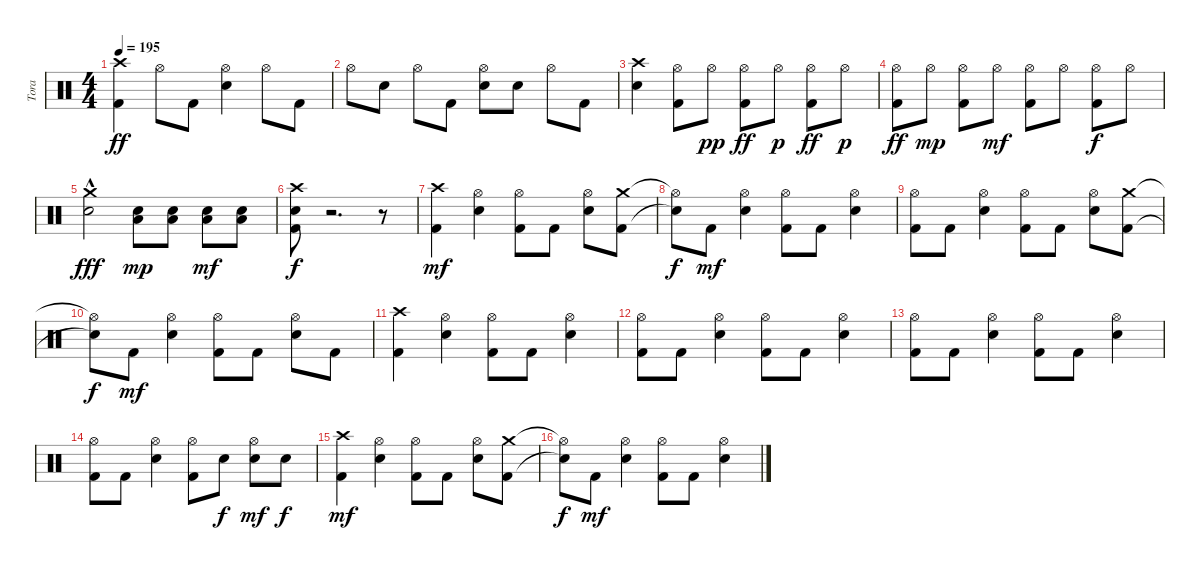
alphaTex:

\track ("Tora" "Tora") {instrument percussion}
\staff {score}
\articulation defaults
\ts (4 4)
\tempo 195
\clef neutral
\ks c
("Crash high (hit)" "Kick (hit) 2").4{dy ff} "Hi-Hat (open)".8 "Kick (hit) 2".8 ("Hi-Hat (open)" "Electric Snare (hit)").4 "Hi-Hat (open)".8 "Kick (hit) 2".8 |
"Hi-Hat (open)".8 "Electric Snare (hit)".8 "Hi-Hat (open)".8 "Kick (hit) 2".8 ("Hi-Hat (open)" "Electric Snare (hit)").8 "Electric Snare (hit)".8 "Hi-Hat (open)".8 "Kick (hit) 2".8 |
("Crash high (hit)" "Electric Snare (hit)").4 ("Hi-Hat (open)" "Kick (hit) 2").8 "Hi-Hat (open)".8{dy pp} ("Hi-Hat (open)" "Kick (hit) 2").8{dy ff} "Hi-Hat (open)".8{dy p} ("Hi-Hat (open)" "Kick (hit) 2").8{dy ff} "Hi-Hat (open)".8{dy p} |
("Hi-Hat (open)" "Kick (hit) 2").8{dy ff} "Hi-Hat (open)".8{dy mp} ("Hi-Hat (open)" "Kick (hit) 2").8 "Hi-Hat (open)".8{dy mf} ("Hi-Hat (open)" "Kick (hit) 2").8 "Hi-Hat (open)".8 ("Hi-Hat (open)" "Kick (hit) 2").8{dy f} "Hi-Hat (open)".8 |
("Crash medium (hit)"{hac} "Electric Snare (hit)"{hac}).2{dy fff} ("Electric Snare (hit)" "Low Floor Tom (hit)").8{dy mp} ("Electric Snare (hit)" "Low Floor Tom (hit)").8 ("Electric Snare (hit)" "Low Floor Tom (hit)").8{dy mf} ("Electric Snare (hit)" "Low Floor Tom (hit)").8 |
("Crash high (hit)" "Electric Snare (hit)" "Kick (hit) 2").8{dy f} r.2{d} r.8 |
("Crash high (hit)" "Kick (hit) 2").4{dy mf} ("Hi-Hat (open)" "Electric Snare (hit)").4 ("Hi-Hat (open)" "Kick (hit) 2").8 "Kick (hit) 2".8 ("Hi-Hat (open)" "Electric Snare (hit)").8 ("Crash medium (hit)" "Kick (hit) 2").8 |
("Hi-Hat (open)"{t} "Snare (hit)"{t}).8{dy f} "Kick (hit) 2".8{dy mf} ("Hi-Hat (open)" "Electric Snare (hit)").4 ("Hi-Hat (open)" "Kick (hit) 2").8 "Kick (hit) 2".8 ("Hi-Hat (open)" "Electric Snare (hit)").4 |
("Hi-Hat (open)" "Kick (hit) 2").8 "Kick (hit) 2".8 ("Hi-Hat (open)" "Electric Snare (hit)").4 ("Hi-Hat (open)" "Kick (hit) 2").8 "Kick (hit) 2".8 ("Hi-Hat (open)" "Electric Snare (hit)").8 ("Crash medium (hit)" "Kick (hit) 2").8 |
("Hi-Hat (open)"{t} "Snare (hit)"{t}).8{dy f} "Kick (hit) 2".8{dy mf} ("Hi-Hat (open)" "Electric Snare (hit)").4 ("Hi-Hat (open)" "Kick (hit) 2").8 "Kick (hit) 2".8 ("Hi-Hat (open)" "Electric Snare (hit)").8 "Kick (hit) 2".8 |
("Crash high (hit)" "Kick (hit) 2").4 ("Hi-Hat (open)" "Electric Snare (hit)").4 ("Hi-Hat (open)" "Kick (hit) 2").8 "Kick (hit) 2".8 ("Hi-Hat (open)" "Electric Snare (hit)").4 |
("Hi-Hat (open)" "Kick (hit) 2").8 "Kick (hit) 2".8 ("Hi-Hat (open)" "Electric Snare (hit)").4 ("Hi-Hat (open)" "Kick (hit) 2").8 "Kick (hit) 2".8 ("Hi-Hat (open)" "Electric Snare (hit)").4 |
("Hi-Hat (open)" "Kick (hit) 2").8 "Kick (hit) 2".8 ("Hi-Hat (open)" "Electric Snare (hit)").4 ("Hi-Hat (open)" "Kick (hit) 2").8 "Kick (hit) 2".8 ("Hi-Hat (open)" "Electric Snare (hit)").4 |
("Hi-Hat (open)" "Kick (hit) 2").8 "Kick (hit) 2".8 ("Hi-Hat (open)" "Electric Snare (hit)").4 ("Hi-Hat (open)" "Kick (hit) 2").8 "Electric Snare (hit)".8{dy f} ("Hi-Hat (open)" "Electric Snare (hit)").8{dy mf} "Electric Snare (hit)".8{dy f} |
("Crash high (hit)" "Kick (hit) 2").4{dy mf} ("Hi-Hat (open)" "Electric Snare (hit)").4 ("Hi-Hat (open)" "Kick (hit) 2").8 "Kick (hit) 2".8 ("Hi-Hat (open)" "Electric Snare (hit)").8 ("Crash medium (hit)" "Kick (hit) 2").8 |
("Hi-Hat (open)"{t} "Snare (hit)"{t}).8{dy f} "Kick (hit) 2".8{dy mf} ("Hi-Hat (open)" "Electric Snare (hit)").4 ("Hi-Hat (open)" "Kick (hit) 2").8 "Kick (hit) 2".8 ("Hi-Hat (open)" "Electric Snare (hit)").4
